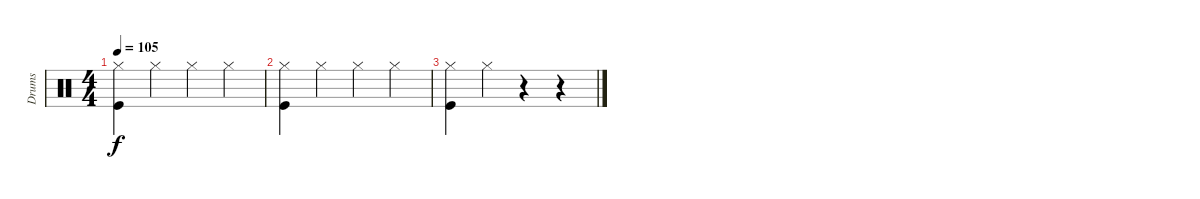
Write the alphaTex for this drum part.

\track ("Drums" "Drums") {instrument percussion}
\staff {score}
\articulation defaults
\ts (4 4)
\tempo 105
\clef neutral
\ks c
("Hi-Hat (closed)" "Kick (hit)").4{dy f} "Hi-Hat (closed)".4 "Hi-Hat (closed)".4 "Hi-Hat (closed)".4 |
("Hi-Hat (closed)" "Kick (hit)").4 "Hi-Hat (closed)".4 "Hi-Hat (closed)".4{volume 0} "Hi-Hat (closed)".4 |
("Hi-Hat (closed)" "Kick (hit)").4 "Hi-Hat (closed)".4 r.4 r.4
